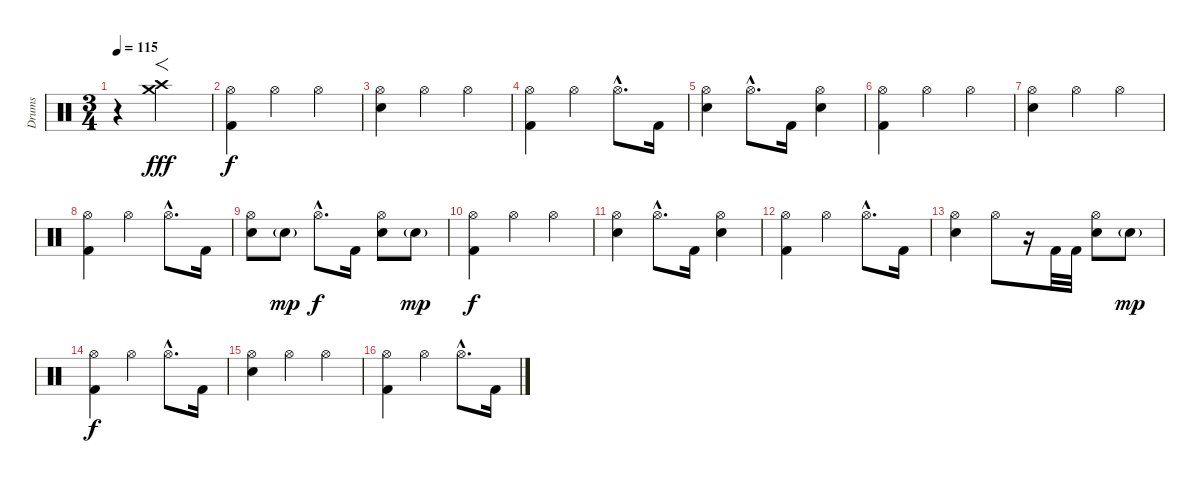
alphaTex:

\track ("Drums" "Drums") {instrument percussion}
\staff {score}
\articulation defaults
\ts (3 4)
\tempo 115
\clef neutral
\ks c
r.4{dy fff} ("Crash high (hit)" "Crash medium (hit)").2{f} |
\section ("" "")
("Hi-Hat (open)" "Kick (hit) 2").4{dy f} "Hi-Hat (open)".4 "Hi-Hat (open)".4 |
("Hi-Hat (open)" "Electric Snare (hit)").4 "Hi-Hat (open)".4 "Hi-Hat (open)".4 |
("Hi-Hat (open)" "Kick (hit) 2").4 "Hi-Hat (open)".4 "Hi-Hat (open)"{hac}.8{d} "Kick (hit) 2".16 |
("Hi-Hat (open)" "Electric Snare (hit)").4 "Hi-Hat (open)"{hac}.8{d} "Kick (hit) 2".16 ("Hi-Hat (open)" "Electric Snare (hit)").4 |
("Hi-Hat (open)" "Kick (hit) 2").4 "Hi-Hat (open)".4 "Hi-Hat (open)".4 |
("Hi-Hat (open)" "Electric Snare (hit)").4 "Hi-Hat (open)".4 "Hi-Hat (open)".4 |
("Hi-Hat (open)" "Kick (hit) 2").4 "Hi-Hat (open)".4 "Hi-Hat (open)"{hac}.8{d} "Kick (hit) 2".16 |
("Hi-Hat (open)" "Electric Snare (hit)").8 "Electric Snare (hit)"{g}.8{dy mp} "Hi-Hat (open)"{hac}.8{d dy f} "Kick (hit) 2".16 ("Hi-Hat (open)" "Electric Snare (hit)").8 "Electric Snare (hit)"{g}.8{dy mp} |
("Hi-Hat (open)" "Kick (hit) 2").4{dy f} "Hi-Hat (open)".4 "Hi-Hat (open)".4 |
("Hi-Hat (open)" "Electric Snare (hit)").4 "Hi-Hat (open)"{hac}.8{d} "Kick (hit) 2".16 ("Hi-Hat (open)" "Electric Snare (hit)").4 |
("Hi-Hat (open)" "Kick (hit) 2").4 "Hi-Hat (open)".4 "Hi-Hat (open)"{hac}.8{d} "Kick (hit) 2".16 |
("Hi-Hat (open)" "Electric Snare (hit)").4 "Hi-Hat (open)".8 r.16 "Kick (hit) 2".32 "Kick (hit) 2".32 ("Hi-Hat (open)" "Electric Snare (hit)").8 "Electric Snare (hit)"{g}.8{dy mp} |
("Hi-Hat (open)" "Kick (hit) 2").4{dy f} "Hi-Hat (open)".4 "Hi-Hat (open)"{hac}.8{d} "Kick (hit) 2".16 |
("Hi-Hat (open)" "Electric Snare (hit)").4 "Hi-Hat (open)".4 "Hi-Hat (open)".4 |
("Hi-Hat (open)" "Kick (hit) 2").4 "Hi-Hat (open)".4 "Hi-Hat (open)"{hac}.8{d} "Kick (hit) 2".16
